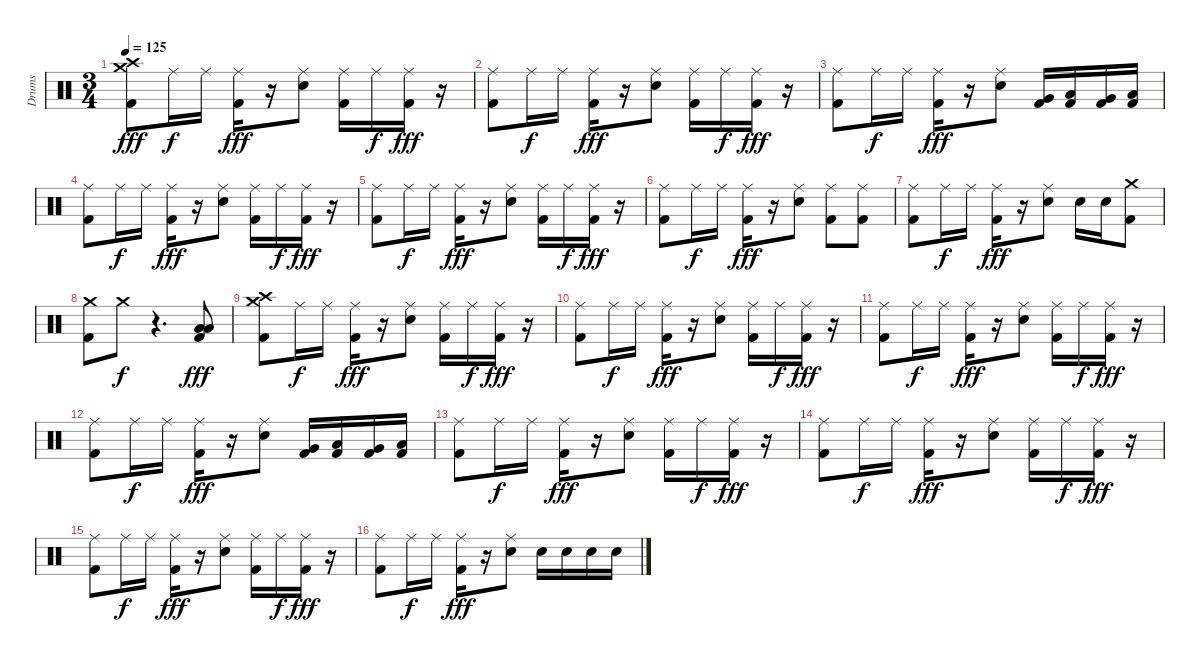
\track ("Drums" "Drums") {instrument percussion}
\staff {score}
\articulation defaults
\ts (3 4)
\tempo 125
\clef neutral
\ks c
("Kick (hit) 2" "Crash high (hit)" "Crash medium (hit)").8{dy fff} "Ride (middle)".16{dy f} "Ride (middle)".16 ("Kick (hit) 2" "Ride (middle)").16{dy fff} r.16 ("Electric Snare (hit)" "Ride (middle)").8 ("Kick (hit) 2" "Ride (middle)").16 "Ride (middle)".16{dy f} ("Kick (hit) 2" "Ride (middle)").16{dy fff} r.16 |
("Kick (hit) 2" "Ride (middle)").8 "Ride (middle)".16{dy f} "Ride (middle)".16 ("Kick (hit) 2" "Ride (middle)").16{dy fff} r.16 ("Electric Snare (hit)" "Ride (middle)").8 ("Kick (hit) 2" "Ride (middle)").16 "Ride (middle)".16{dy f} ("Kick (hit) 2" "Ride (middle)").16{dy fff} r.16 |
("Kick (hit) 2" "Ride (middle)").8 "Ride (middle)".16{dy f} "Ride (middle)".16 ("Kick (hit) 2" "Ride (middle)").16{dy fff} r.16 ("Electric Snare (hit)" "Ride (middle)").8 ("Kick (hit) 2" "Very Low Tom (hit)").16 ("Kick (hit) 2" "Low Tom (hit)").16 ("Kick (hit) 2" "Very Low Tom (hit)").16 ("Kick (hit) 2" "Low Tom (hit)").16 |
("Kick (hit) 2" "Ride (middle)").8 "Ride (middle)".16{dy f} "Ride (middle)".16 ("Kick (hit) 2" "Ride (middle)").16{dy fff} r.16 ("Electric Snare (hit)" "Ride (middle)").8 ("Kick (hit) 2" "Ride (middle)").16 "Ride (middle)".16{dy f} ("Kick (hit) 2" "Ride (middle)").16{dy fff} r.16 |
("Kick (hit) 2" "Ride (middle)").8 "Ride (middle)".16{dy f} "Ride (middle)".16 ("Kick (hit) 2" "Ride (middle)").16{dy fff} r.16 ("Electric Snare (hit)" "Ride (middle)").8 ("Kick (hit) 2" "Ride (middle)").16 "Ride (middle)".16{dy f} ("Kick (hit) 2" "Ride (middle)").16{dy fff} r.16 |
("Kick (hit) 2" "Ride (middle)").8 "Ride (middle)".16{dy f} "Ride (middle)".16 ("Kick (hit) 2" "Ride (middle)").16{dy fff} r.16 ("Electric Snare (hit)" "Ride (middle)").8 ("Kick (hit) 2" "Ride (middle)").8 ("Kick (hit) 2" "Ride (middle)").8 |
("Kick (hit) 2" "Ride (middle)").8 "Ride (middle)".16{dy f} "Ride (middle)".16 ("Kick (hit) 2" "Ride (middle)").16{dy fff} r.16 ("Electric Snare (hit)" "Ride (middle)").8 "Electric Snare (hit)".16 "Electric Snare (hit)".16 ("Kick (hit) 2" "Crash medium (hit)").8 |
("Kick (hit) 2" "Crash medium (hit)").8 "Crash medium (hit)".8{dy f volume 0} r.4{d} ("Kick (hit) 2" "Low Tom (hit)" "Low Floor Tom (hit)").8{dy fff volume 16} |
("Kick (hit) 2" "Crash high (hit)" "Crash medium (hit)").8 "Ride (middle)".16{dy f} "Ride (middle)".16 ("Kick (hit) 2" "Ride (middle)").16{dy fff} r.16 ("Electric Snare (hit)" "Ride (middle)").8 ("Kick (hit) 2" "Ride (middle)").16 "Ride (middle)".16{dy f} ("Kick (hit) 2" "Ride (middle)").16{dy fff} r.16 |
("Kick (hit) 2" "Ride (middle)").8 "Ride (middle)".16{dy f} "Ride (middle)".16 ("Kick (hit) 2" "Ride (middle)").16{dy fff} r.16 ("Electric Snare (hit)" "Ride (middle)").8 ("Kick (hit) 2" "Ride (middle)").16 "Ride (middle)".16{dy f} ("Kick (hit) 2" "Ride (middle)").16{dy fff} r.16 |
("Kick (hit) 2" "Ride (middle)").8 "Ride (middle)".16{dy f} "Ride (middle)".16 ("Kick (hit) 2" "Ride (middle)").16{dy fff} r.16 ("Electric Snare (hit)" "Ride (middle)").8 ("Kick (hit) 2" "Ride (middle)").16 "Ride (middle)".16{dy f} ("Kick (hit) 2" "Ride (middle)").16{dy fff} r.16 |
("Kick (hit) 2" "Ride (middle)").8 "Ride (middle)".16{dy f} "Ride (middle)".16 ("Kick (hit) 2" "Ride (middle)").16{dy fff} r.16 ("Electric Snare (hit)" "Ride (middle)").8 ("Kick (hit) 2" "Very Low Tom (hit)").16 ("Kick (hit) 2" "Low Tom (hit)").16 ("Kick (hit) 2" "Very Low Tom (hit)").16 ("Kick (hit) 2" "Low Tom (hit)").16 |
("Kick (hit) 2" "Ride (middle)").8 "Ride (middle)".16{dy f} "Ride (middle)".16 ("Kick (hit) 2" "Ride (middle)").16{dy fff} r.16 ("Electric Snare (hit)" "Ride (middle)").8 ("Kick (hit) 2" "Ride (middle)").16 "Ride (middle)".16{dy f} ("Kick (hit) 2" "Ride (middle)").16{dy fff} r.16 |
("Kick (hit) 2" "Ride (middle)").8 "Ride (middle)".16{dy f} "Ride (middle)".16 ("Kick (hit) 2" "Ride (middle)").16{dy fff} r.16 ("Electric Snare (hit)" "Ride (middle)").8 ("Kick (hit) 2" "Ride (middle)").16 "Ride (middle)".16{dy f} ("Kick (hit) 2" "Ride (middle)").16{dy fff} r.16 |
("Kick (hit) 2" "Ride (middle)").8 "Ride (middle)".16{dy f} "Ride (middle)".16 ("Kick (hit) 2" "Ride (middle)").16{dy fff} r.16 ("Electric Snare (hit)" "Ride (middle)").8 ("Kick (hit) 2" "Ride (middle)").16 "Ride (middle)".16{dy f} ("Kick (hit) 2" "Ride (middle)").16{dy fff} r.16 |
("Kick (hit) 2" "Ride (middle)").8 "Ride (middle)".16{dy f} "Ride (middle)".16 ("Kick (hit) 2" "Ride (middle)").16{dy fff} r.16 ("Electric Snare (hit)" "Ride (middle)").8 "Electric Snare (hit)".16 "Electric Snare (hit)".16 "Electric Snare (hit)".16 "Electric Snare (hit)".16
